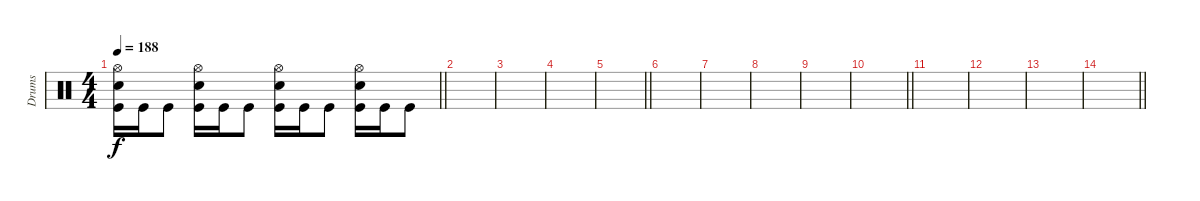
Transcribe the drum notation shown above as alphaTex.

\track ("Drums" "Drums") {instrument percussion}
\staff
\articulation defaults
\ts (4 4)
\tempo 188
\clef neutral
\barLineRight lightlight
\ks c
("Hi-Hat (open)" "Electric Snare (hit)" "Kick (hit)").16{dy f} "Kick (hit)".16 "Kick (hit)".8 ("Hi-Hat (open)" "Electric Snare (hit)" "Kick (hit)").16 "Kick (hit)".16 "Kick (hit)".8 ("Hi-Hat (open)" "Electric Snare (hit)" "Kick (hit)").16 "Kick (hit)".16 "Kick (hit)".8 ("Hi-Hat (open)" "Electric Snare (hit)" "Kick (hit)").16 "Kick (hit)".16 "Kick (hit)".8 |
|
|
|
\barLineRight lightlight
|
|
|
|
|
\barLineRight lightlight
|
\section ("" "")
|
|
|
\barLineRight lightlight
